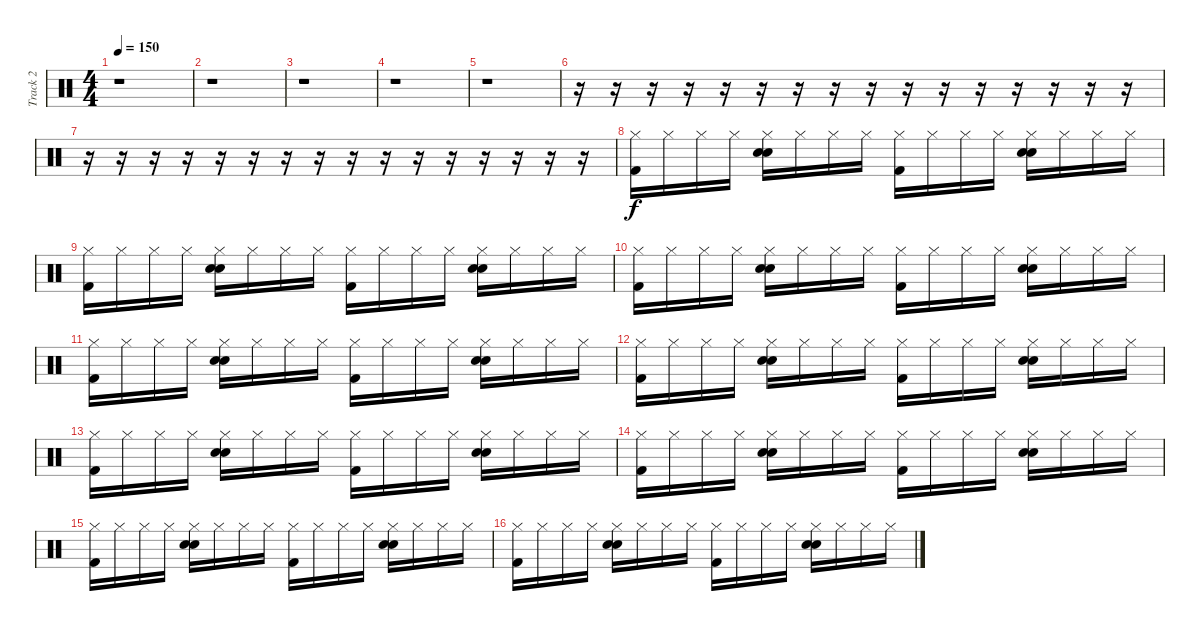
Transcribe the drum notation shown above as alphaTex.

\track ("Track 2" "Track 2") {instrument percussion}
\staff {score}
\articulation defaults
\ts (4 4)
\tempo 150
\clef neutral
\ks c
r.1{dy f} |
r.1 |
r.1 |
r.1 |
r.1 |
r.16 r.16 r.16 r.16 r.16 r.16 r.16 r.16 r.16 r.16 r.16 r.16 r.16 r.16 r.16 r.16 |
r.16 r.16 r.16 r.16 r.16 r.16 r.16 r.16 r.16 r.16 r.16 r.16 r.16 r.16 r.16 r.16 |
("Hi-Hat (closed)" "Kick (hit) 2").16 "Hi-Hat (closed)".16 "Hi-Hat (closed)".16 "Hi-Hat (closed)".16 ("Hi-Hat (closed)" "Hand Clap (hit)" "Electric Snare (hit)").16 "Hi-Hat (closed)".16 "Hi-Hat (closed)".16 "Hi-Hat (closed)".16 ("Hi-Hat (closed)" "Kick (hit) 2").16 "Hi-Hat (closed)".16 "Hi-Hat (closed)".16 "Hi-Hat (closed)".16 ("Hi-Hat (closed)" "Electric Snare (hit)" "Hand Clap (hit)").16 "Hi-Hat (closed)".16 "Hi-Hat (closed)".16 "Hi-Hat (closed)".16 |
("Hi-Hat (closed)" "Kick (hit) 2").16 "Hi-Hat (closed)".16 "Hi-Hat (closed)".16 "Hi-Hat (closed)".16 ("Hi-Hat (closed)" "Hand Clap (hit)" "Electric Snare (hit)").16 "Hi-Hat (closed)".16 "Hi-Hat (closed)".16 "Hi-Hat (closed)".16 ("Hi-Hat (closed)" "Kick (hit) 2").16 "Hi-Hat (closed)".16 "Hi-Hat (closed)".16 "Hi-Hat (closed)".16 ("Hi-Hat (closed)" "Electric Snare (hit)" "Hand Clap (hit)").16 "Hi-Hat (closed)".16 "Hi-Hat (closed)".16 "Hi-Hat (closed)".16 |
("Hi-Hat (closed)" "Kick (hit) 2").16 "Hi-Hat (closed)".16 "Hi-Hat (closed)".16 "Hi-Hat (closed)".16 ("Hi-Hat (closed)" "Hand Clap (hit)" "Electric Snare (hit)").16 "Hi-Hat (closed)".16 "Hi-Hat (closed)".16 "Hi-Hat (closed)".16 ("Hi-Hat (closed)" "Kick (hit) 2").16 "Hi-Hat (closed)".16 "Hi-Hat (closed)".16 "Hi-Hat (closed)".16 ("Hi-Hat (closed)" "Electric Snare (hit)" "Hand Clap (hit)").16 "Hi-Hat (closed)".16 "Hi-Hat (closed)".16 "Hi-Hat (closed)".16 |
("Hi-Hat (closed)" "Kick (hit) 2").16 "Hi-Hat (closed)".16 "Hi-Hat (closed)".16 "Hi-Hat (closed)".16 ("Hi-Hat (closed)" "Hand Clap (hit)" "Electric Snare (hit)").16 "Hi-Hat (closed)".16 "Hi-Hat (closed)".16 "Hi-Hat (closed)".16 ("Hi-Hat (closed)" "Kick (hit) 2").16 "Hi-Hat (closed)".16 "Hi-Hat (closed)".16 "Hi-Hat (closed)".16 ("Hi-Hat (closed)" "Electric Snare (hit)" "Hand Clap (hit)").16 "Hi-Hat (closed)".16 "Hi-Hat (closed)".16 "Hi-Hat (closed)".16 |
("Hi-Hat (closed)" "Kick (hit) 2").16 "Hi-Hat (closed)".16 "Hi-Hat (closed)".16 "Hi-Hat (closed)".16 ("Hi-Hat (closed)" "Hand Clap (hit)" "Electric Snare (hit)").16 "Hi-Hat (closed)".16 "Hi-Hat (closed)".16 "Hi-Hat (closed)".16 ("Hi-Hat (closed)" "Kick (hit) 2").16 "Hi-Hat (closed)".16 "Hi-Hat (closed)".16 "Hi-Hat (closed)".16 ("Hi-Hat (closed)" "Electric Snare (hit)" "Hand Clap (hit)").16 "Hi-Hat (closed)".16 "Hi-Hat (closed)".16 "Hi-Hat (closed)".16 |
("Hi-Hat (closed)" "Kick (hit) 2").16 "Hi-Hat (closed)".16 "Hi-Hat (closed)".16 "Hi-Hat (closed)".16 ("Hi-Hat (closed)" "Hand Clap (hit)" "Electric Snare (hit)").16 "Hi-Hat (closed)".16 "Hi-Hat (closed)".16 "Hi-Hat (closed)".16 ("Hi-Hat (closed)" "Kick (hit) 2").16 "Hi-Hat (closed)".16 "Hi-Hat (closed)".16 "Hi-Hat (closed)".16 ("Hi-Hat (closed)" "Electric Snare (hit)" "Hand Clap (hit)").16 "Hi-Hat (closed)".16 "Hi-Hat (closed)".16 "Hi-Hat (closed)".16 |
("Hi-Hat (closed)" "Kick (hit) 2").16 "Hi-Hat (closed)".16 "Hi-Hat (closed)".16 "Hi-Hat (closed)".16 ("Hi-Hat (closed)" "Hand Clap (hit)" "Electric Snare (hit)").16 "Hi-Hat (closed)".16 "Hi-Hat (closed)".16 "Hi-Hat (closed)".16 ("Hi-Hat (closed)" "Kick (hit) 2").16 "Hi-Hat (closed)".16 "Hi-Hat (closed)".16 "Hi-Hat (closed)".16 ("Hi-Hat (closed)" "Electric Snare (hit)" "Hand Clap (hit)").16 "Hi-Hat (closed)".16 "Hi-Hat (closed)".16 "Hi-Hat (closed)".16 |
("Hi-Hat (closed)" "Kick (hit) 2").16 "Hi-Hat (closed)".16 "Hi-Hat (closed)".16 "Hi-Hat (closed)".16 ("Hi-Hat (closed)" "Hand Clap (hit)" "Electric Snare (hit)").16 "Hi-Hat (closed)".16 "Hi-Hat (closed)".16 "Hi-Hat (closed)".16 ("Hi-Hat (closed)" "Kick (hit) 2").16 "Hi-Hat (closed)".16 "Hi-Hat (closed)".16 "Hi-Hat (closed)".16 ("Hi-Hat (closed)" "Electric Snare (hit)" "Hand Clap (hit)").16 "Hi-Hat (closed)".16 "Hi-Hat (closed)".16 "Hi-Hat (closed)".16 |
("Hi-Hat (closed)" "Kick (hit) 2").16 "Hi-Hat (closed)".16 "Hi-Hat (closed)".16 "Hi-Hat (closed)".16 ("Hi-Hat (closed)" "Hand Clap (hit)" "Electric Snare (hit)").16 "Hi-Hat (closed)".16 "Hi-Hat (closed)".16 "Hi-Hat (closed)".16 ("Hi-Hat (closed)" "Kick (hit) 2").16 "Hi-Hat (closed)".16 "Hi-Hat (closed)".16 "Hi-Hat (closed)".16 ("Hi-Hat (closed)" "Electric Snare (hit)" "Hand Clap (hit)").16 "Hi-Hat (closed)".16 "Hi-Hat (closed)".16 "Hi-Hat (closed)".16
